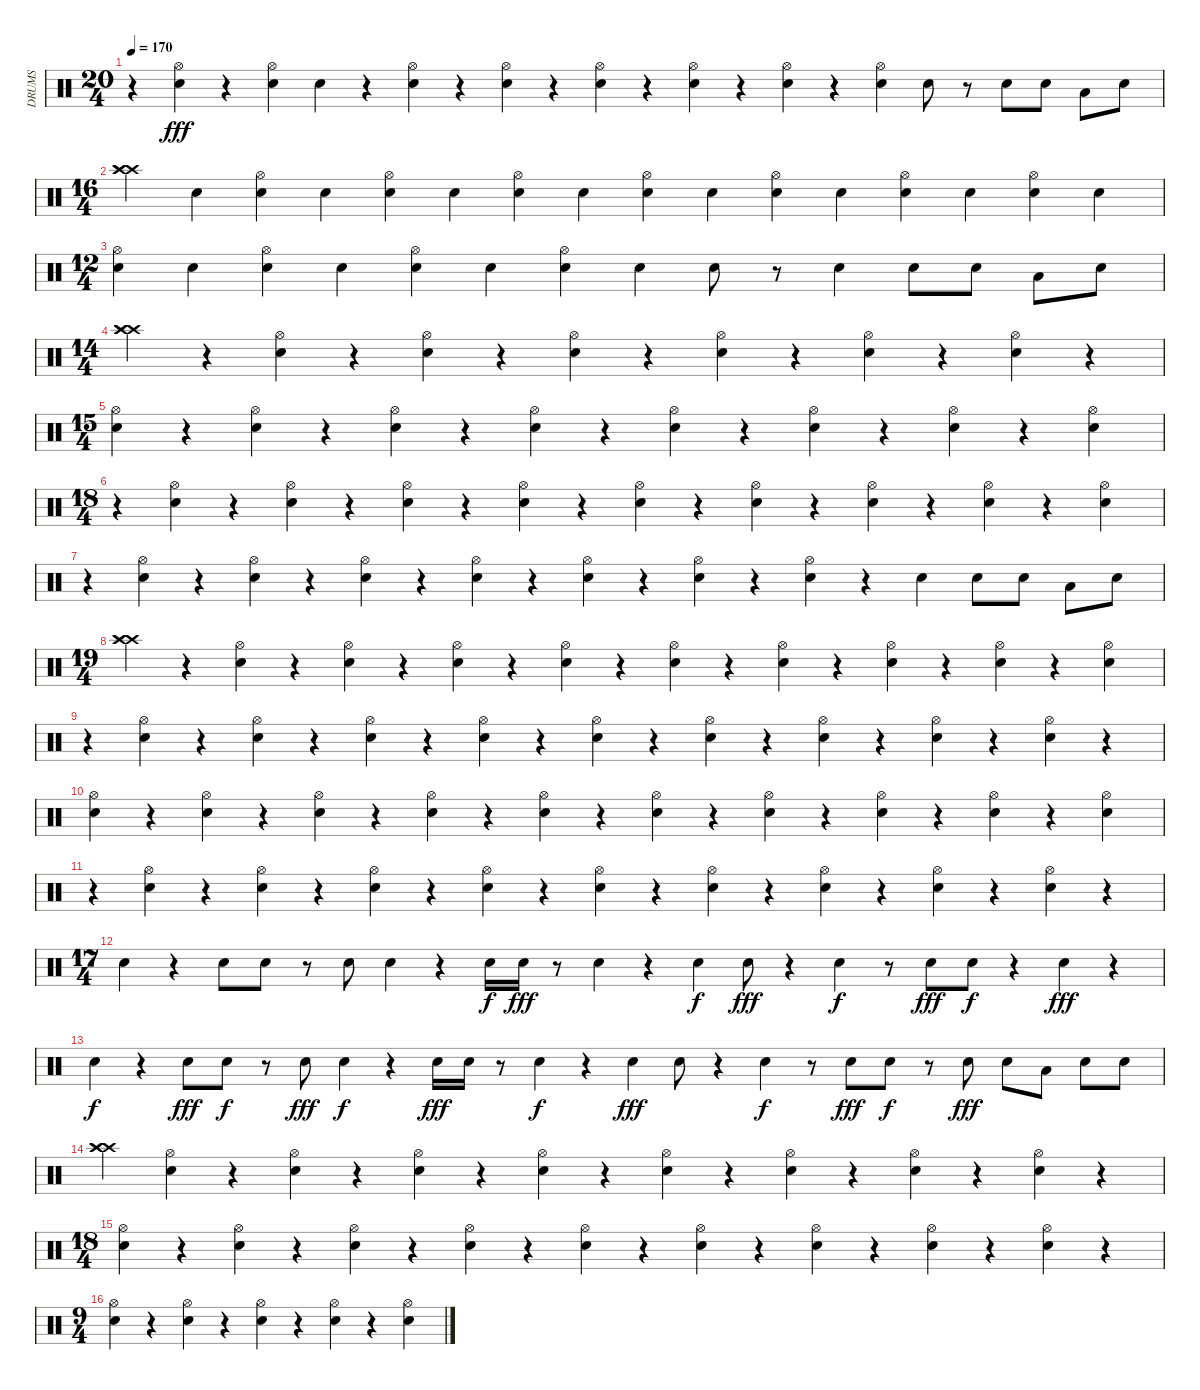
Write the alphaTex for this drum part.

\track ("DRUMS" "DRUMS") {instrument percussion}
\staff {score}
\articulation defaults
\ts (20 4)
\tempo 170
\clef neutral
\ks c
r.4{dy fff} ("Hi-Hat (open)" "Electric Snare (hit)").4 r.4 ("Hi-Hat (open)" "Electric Snare (hit)").4 "Electric Snare (hit)".4 r.4 ("Hi-Hat (open)" "Electric Snare (hit)").4 r.4 ("Hi-Hat (open)" "Electric Snare (hit)").4 r.4 ("Hi-Hat (open)" "Electric Snare (hit)").4 r.4 ("Hi-Hat (open)" "Electric Snare (hit)").4 r.4 ("Hi-Hat (open)" "Electric Snare (hit)").4 r.4 ("Hi-Hat (open)" "Electric Snare (hit)").4 "Electric Snare (hit)".8 r.8 "Electric Snare (hit)".8 "Electric Snare (hit)".8 "Low Tom (hit)".8 "Electric Snare (hit)".8 |
\ts (16 4)
("Crash high (hit)" "Crash high (hit)" "Crash high (hit)").4 "Electric Snare (hit)".4 ("Hi-Hat (open)" "Electric Snare (hit)").4 "Electric Snare (hit)".4 ("Hi-Hat (open)" "Electric Snare (hit)").4 "Electric Snare (hit)".4 ("Hi-Hat (open)" "Electric Snare (hit)").4 "Electric Snare (hit)".4 ("Hi-Hat (open)" "Electric Snare (hit)").4 "Electric Snare (hit)".4 ("Hi-Hat (open)" "Electric Snare (hit)").4 "Electric Snare (hit)".4 ("Hi-Hat (open)" "Electric Snare (hit)").4 "Electric Snare (hit)".4 ("Hi-Hat (open)" "Electric Snare (hit)").4 "Electric Snare (hit)".4 |
\ts (12 4)
("Hi-Hat (open)" "Electric Snare (hit)").4 "Electric Snare (hit)".4 ("Hi-Hat (open)" "Electric Snare (hit)").4 "Electric Snare (hit)".4 ("Hi-Hat (open)" "Electric Snare (hit)").4 "Electric Snare (hit)".4 ("Hi-Hat (open)" "Electric Snare (hit)").4 "Electric Snare (hit)".4 "Electric Snare (hit)".8 r.8 "Electric Snare (hit)".4 "Electric Snare (hit)".8 "Electric Snare (hit)".8 "Low Tom (hit)".8 "Electric Snare (hit)".8 |
\ts (14 4)
("Crash high (hit)" "Crash high (hit)" "Crash high (hit)").4 r.4 ("Hi-Hat (open)" "Electric Snare (hit)").4 r.4 ("Hi-Hat (open)" "Electric Snare (hit)").4 r.4 ("Hi-Hat (open)" "Electric Snare (hit)").4 r.4 ("Hi-Hat (open)" "Electric Snare (hit)").4 r.4 ("Hi-Hat (open)" "Electric Snare (hit)").4 r.4 ("Hi-Hat (open)" "Electric Snare (hit)").4 r.4 |
\ts (15 4)
("Hi-Hat (open)" "Electric Snare (hit)").4 r.4 ("Hi-Hat (open)" "Electric Snare (hit)").4 r.4 ("Hi-Hat (open)" "Electric Snare (hit)").4 r.4 ("Hi-Hat (open)" "Electric Snare (hit)").4 r.4 ("Hi-Hat (open)" "Electric Snare (hit)").4 r.4 ("Hi-Hat (open)" "Electric Snare (hit)").4 r.4 ("Hi-Hat (open)" "Electric Snare (hit)").4 r.4 ("Hi-Hat (open)" "Electric Snare (hit)").4 |
\ts (18 4)
r.4 ("Hi-Hat (open)" "Electric Snare (hit)").4 r.4 ("Hi-Hat (open)" "Electric Snare (hit)").4 r.4 ("Hi-Hat (open)" "Electric Snare (hit)").4 r.4 ("Hi-Hat (open)" "Electric Snare (hit)").4 r.4 ("Hi-Hat (open)" "Electric Snare (hit)").4 r.4 ("Hi-Hat (open)" "Electric Snare (hit)").4 r.4 ("Hi-Hat (open)" "Electric Snare (hit)").4 r.4 ("Hi-Hat (open)" "Electric Snare (hit)").4 r.4 ("Hi-Hat (open)" "Electric Snare (hit)").4 |
r.4 ("Hi-Hat (open)" "Electric Snare (hit)").4 r.4 ("Hi-Hat (open)" "Electric Snare (hit)").4 r.4 ("Hi-Hat (open)" "Electric Snare (hit)").4 r.4 ("Hi-Hat (open)" "Electric Snare (hit)").4 r.4 ("Hi-Hat (open)" "Electric Snare (hit)").4 r.4 ("Hi-Hat (open)" "Electric Snare (hit)").4 r.4 ("Hi-Hat (open)" "Electric Snare (hit)").4 r.4 "Electric Snare (hit)".4 "Electric Snare (hit)".8 "Electric Snare (hit)".8 "Low Tom (hit)".8 "Electric Snare (hit)".8 |
\ts (19 4)
("Crash high (hit)" "Crash high (hit)" "Crash high (hit)").4 r.4 ("Hi-Hat (open)" "Electric Snare (hit)").4 r.4 ("Hi-Hat (open)" "Electric Snare (hit)").4 r.4 ("Hi-Hat (open)" "Electric Snare (hit)").4 r.4 ("Hi-Hat (open)" "Electric Snare (hit)").4 r.4 ("Hi-Hat (open)" "Electric Snare (hit)").4 r.4 ("Hi-Hat (open)" "Electric Snare (hit)").4 r.4 ("Hi-Hat (open)" "Electric Snare (hit)").4 r.4 ("Hi-Hat (open)" "Electric Snare (hit)").4 r.4 ("Hi-Hat (open)" "Electric Snare (hit)").4 |
r.4 ("Hi-Hat (open)" "Electric Snare (hit)").4 r.4 ("Hi-Hat (open)" "Electric Snare (hit)").4 r.4 ("Hi-Hat (open)" "Electric Snare (hit)").4 r.4 ("Hi-Hat (open)" "Electric Snare (hit)").4 r.4 ("Hi-Hat (open)" "Electric Snare (hit)").4 r.4 ("Hi-Hat (open)" "Electric Snare (hit)").4 r.4 ("Hi-Hat (open)" "Electric Snare (hit)").4 r.4 ("Hi-Hat (open)" "Electric Snare (hit)").4 r.4 ("Hi-Hat (open)" "Electric Snare (hit)").4 r.4 |
("Hi-Hat (open)" "Electric Snare (hit)").4 r.4 ("Hi-Hat (open)" "Electric Snare (hit)").4 r.4 ("Hi-Hat (open)" "Electric Snare (hit)").4 r.4 ("Hi-Hat (open)" "Electric Snare (hit)").4 r.4 ("Hi-Hat (open)" "Electric Snare (hit)").4 r.4 ("Hi-Hat (open)" "Electric Snare (hit)").4 r.4 ("Hi-Hat (open)" "Electric Snare (hit)").4 r.4 ("Hi-Hat (open)" "Electric Snare (hit)").4 r.4 ("Hi-Hat (open)" "Electric Snare (hit)").4 r.4 ("Hi-Hat (open)" "Electric Snare (hit)").4 |
r.4 ("Hi-Hat (open)" "Electric Snare (hit)").4 r.4 ("Hi-Hat (open)" "Electric Snare (hit)").4 r.4 ("Hi-Hat (open)" "Electric Snare (hit)").4 r.4 ("Hi-Hat (open)" "Electric Snare (hit)").4 r.4 ("Hi-Hat (open)" "Electric Snare (hit)").4 r.4 ("Hi-Hat (open)" "Electric Snare (hit)").4 r.4 ("Hi-Hat (open)" "Electric Snare (hit)").4 r.4 ("Hi-Hat (open)" "Electric Snare (hit)").4 r.4 ("Hi-Hat (open)" "Electric Snare (hit)").4 r.4 |
\ts (17 4)
"Electric Snare (hit)".4 r.4 "Electric Snare (hit)".8 "Electric Snare (hit)".8 r.8 "Electric Snare (hit)".8 "Electric Snare (hit)".4 r.4 "Electric Snare (hit)".16{dy f} "Electric Snare (hit)".16{dy fff} r.8 "Electric Snare (hit)".4 r.4 "Electric Snare (hit)".4{dy f} "Electric Snare (hit)".8{dy fff} r.4 "Electric Snare (hit)".4{dy f} r.8 "Electric Snare (hit)".8{dy fff} "Electric Snare (hit)".8{dy f} r.4 "Electric Snare (hit)".4{dy fff} r.4 |
"Electric Snare (hit)".4{dy f} r.4 "Electric Snare (hit)".8{dy fff} "Electric Snare (hit)".8{dy f} r.8 "Electric Snare (hit)".8{dy fff} "Electric Snare (hit)".4{dy f} r.4 "Electric Snare (hit)".16{dy fff} "Electric Snare (hit)".16 r.8 "Electric Snare (hit)".4{dy f} r.4 "Electric Snare (hit)".4{dy fff} "Electric Snare (hit)".8 r.4 "Electric Snare (hit)".4{dy f} r.8 "Electric Snare (hit)".8{dy fff} "Electric Snare (hit)".8{dy f} r.8 "Electric Snare (hit)".8{dy fff} "Electric Snare (hit)".8 "Low Tom (hit)".8 "Electric Snare (hit)".8 "Electric Snare (hit)".8 |
("Crash high (hit)" "Crash high (hit)" "Crash high (hit)").4 ("Hi-Hat (open)" "Electric Snare (hit)").4 r.4 ("Hi-Hat (open)" "Electric Snare (hit)").4 r.4 ("Hi-Hat (open)" "Electric Snare (hit)").4 r.4 ("Hi-Hat (open)" "Electric Snare (hit)").4 r.4 ("Hi-Hat (open)" "Electric Snare (hit)").4 r.4 ("Hi-Hat (open)" "Electric Snare (hit)").4 r.4 ("Hi-Hat (open)" "Electric Snare (hit)").4 r.4 ("Hi-Hat (open)" "Electric Snare (hit)").4 r.4 |
\ts (18 4)
("Hi-Hat (open)" "Electric Snare (hit)").4 r.4 ("Hi-Hat (open)" "Electric Snare (hit)").4 r.4 ("Hi-Hat (open)" "Electric Snare (hit)").4 r.4 ("Hi-Hat (open)" "Electric Snare (hit)").4 r.4 ("Hi-Hat (open)" "Electric Snare (hit)").4 r.4 ("Hi-Hat (open)" "Electric Snare (hit)").4 r.4 ("Hi-Hat (open)" "Electric Snare (hit)").4 r.4 ("Hi-Hat (open)" "Electric Snare (hit)").4 r.4 ("Hi-Hat (open)" "Electric Snare (hit)").4 r.4 |
\ts (9 4)
("Hi-Hat (open)" "Electric Snare (hit)").4 r.4 ("Hi-Hat (open)" "Electric Snare (hit)").4 r.4 ("Hi-Hat (open)" "Electric Snare (hit)").4 r.4 ("Hi-Hat (open)" "Electric Snare (hit)").4 r.4 ("Hi-Hat (open)" "Electric Snare (hit)").4
